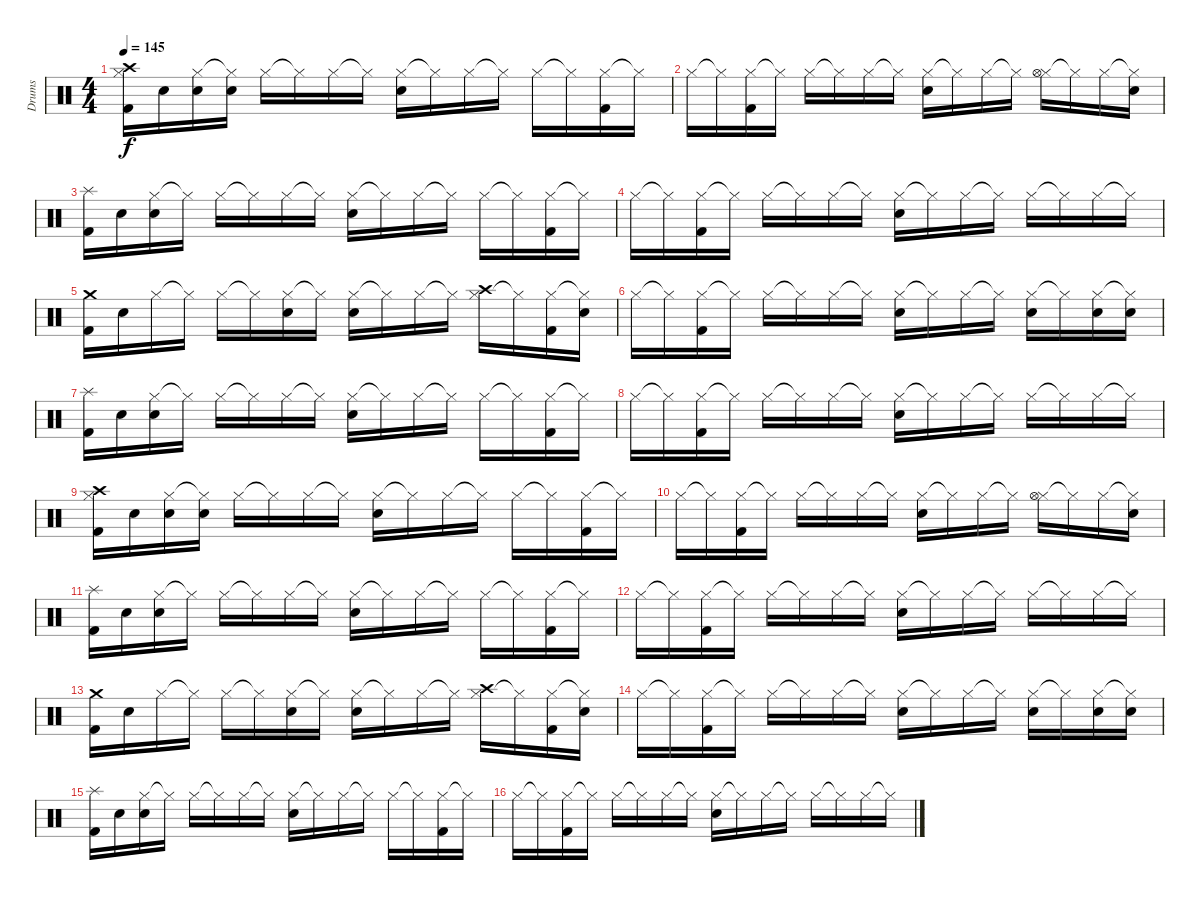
\track ("Drums" "Drums") {instrument percussion}
\staff {score}
\articulation defaults
\ts (4 4)
\tempo 145
\clef neutral
\ks c
("Hi-Hat (closed)" "Crash high (hit)" "Kick (hit) 2").16{dy f} "Snare (hit)".16 ("Hi-Hat (closed)" "Snare (hit)").16 ("Hi-Hat (closed)"{t} "Snare (hit)").16 "Hi-Hat (closed)".16 "Hi-Hat (closed)"{t}.16 "Hi-Hat (closed)".16 "Hi-Hat (closed)"{t}.16 ("Hi-Hat (closed)" "Snare (hit) 2").16 "Hi-Hat (closed)"{t}.16 "Hi-Hat (closed)".16 "Hi-Hat (closed)"{t}.16 "Hi-Hat (closed)".16 "Hi-Hat (closed)"{t}.16 ("Hi-Hat (closed)" "Kick (hit) 2").16 "Hi-Hat (closed)"{t}.16 |
"Hi-Hat (closed)".16 "Hi-Hat (closed)"{t}.16 ("Hi-Hat (closed)" "Kick (hit) 2").16 "Hi-Hat (closed)"{t}.16 "Hi-Hat (closed)".16 "Hi-Hat (closed)"{t}.16 "Hi-Hat (closed)".16 "Hi-Hat (closed)"{t}.16 ("Hi-Hat (closed)" "Snare (hit) 2").16 "Hi-Hat (closed)"{t}.16 "Hi-Hat (closed)".16 "Hi-Hat (closed)"{t}.16 ("Hi-Hat (closed)" "Hi-Hat (open)").16 "Hi-Hat (closed)"{t}.16 "Hi-Hat (closed)".16 ("Hi-Hat (closed)"{t} "Snare (hit)").16 |
("Splash (hit)" "Kick (hit) 2").16 "Snare (hit)".16 ("Hi-Hat (closed)" "Snare (hit)").16 "Hi-Hat (closed)"{t}.16 "Hi-Hat (closed)".16 "Hi-Hat (closed)"{t}.16 "Hi-Hat (closed)".16 "Hi-Hat (closed)"{t}.16 ("Hi-Hat (closed)" "Snare (hit) 2").16 "Hi-Hat (closed)"{t}.16 "Hi-Hat (closed)".16 "Hi-Hat (closed)"{t}.16 "Hi-Hat (closed)".16 "Hi-Hat (closed)"{t}.16 ("Hi-Hat (closed)" "Kick (hit) 2").16 "Hi-Hat (closed)"{t}.16 |
"Hi-Hat (closed)".16 "Hi-Hat (closed)"{t}.16 ("Hi-Hat (closed)" "Kick (hit) 2").16 "Hi-Hat (closed)"{t}.16 "Hi-Hat (closed)".16 "Hi-Hat (closed)"{t}.16 "Hi-Hat (closed)".16 "Hi-Hat (closed)"{t}.16 ("Hi-Hat (closed)" "Snare (hit) 2").16 "Hi-Hat (closed)"{t}.16 "Hi-Hat (closed)".16 "Hi-Hat (closed)"{t}.16 "Hi-Hat (closed)".16 "Hi-Hat (closed)"{t}.16 "Hi-Hat (closed)".16 "Hi-Hat (closed)"{t}.16 |
("Crash medium (hit)" "Kick (hit) 2").16 "Snare (hit)".16 "Hi-Hat (closed)".16 "Hi-Hat (closed)"{t}.16 "Hi-Hat (closed)".16 "Hi-Hat (closed)"{t}.16 ("Hi-Hat (closed)" "Snare (hit)").16 "Hi-Hat (closed)"{t}.16 ("Hi-Hat (closed)" "Snare (hit) 2").16 "Hi-Hat (closed)"{t}.16 "Hi-Hat (closed)".16 "Hi-Hat (closed)"{t}.16 ("Hi-Hat (closed)" "Crash high (hit)").16 "Hi-Hat (closed)"{t}.16 ("Hi-Hat (closed)" "Kick (hit) 2").16 ("Hi-Hat (closed)"{t} "Snare (hit)").16 |
"Hi-Hat (closed)".16 "Hi-Hat (closed)"{t}.16 ("Hi-Hat (closed)" "Kick (hit) 2").16 "Hi-Hat (closed)"{t}.16 "Hi-Hat (closed)".16 "Hi-Hat (closed)"{t}.16 "Hi-Hat (closed)".16 "Hi-Hat (closed)"{t}.16 ("Hi-Hat (closed)" "Snare (hit) 2").16 "Hi-Hat (closed)"{t}.16 "Hi-Hat (closed)".16 "Hi-Hat (closed)"{t}.16 ("Hi-Hat (closed)" "Snare (hit) 2").16 "Hi-Hat (closed)"{t}.16 ("Hi-Hat (closed)" "Snare (hit) 2").16 ("Hi-Hat (closed)"{t} "Snare (hit)").16 |
("Splash (hit)" "Kick (hit) 2").16 "Snare (hit)".16 ("Hi-Hat (closed)" "Snare (hit)").16 "Hi-Hat (closed)"{t}.16 "Hi-Hat (closed)".16 "Hi-Hat (closed)"{t}.16 "Hi-Hat (closed)".16 "Hi-Hat (closed)"{t}.16 ("Hi-Hat (closed)" "Snare (hit) 2").16 "Hi-Hat (closed)"{t}.16 "Hi-Hat (closed)".16 "Hi-Hat (closed)"{t}.16 "Hi-Hat (closed)".16 "Hi-Hat (closed)"{t}.16 ("Hi-Hat (closed)" "Kick (hit) 2").16 "Hi-Hat (closed)"{t}.16 |
"Hi-Hat (closed)".16 "Hi-Hat (closed)"{t}.16 ("Hi-Hat (closed)" "Kick (hit) 2").16 "Hi-Hat (closed)"{t}.16 "Hi-Hat (closed)".16 "Hi-Hat (closed)"{t}.16 "Hi-Hat (closed)".16 "Hi-Hat (closed)"{t}.16 ("Hi-Hat (closed)" "Snare (hit) 2").16 "Hi-Hat (closed)"{t}.16 "Hi-Hat (closed)".16 "Hi-Hat (closed)"{t}.16 "Hi-Hat (closed)".16 "Hi-Hat (closed)"{t}.16 "Hi-Hat (closed)".16 "Hi-Hat (closed)"{t}.16 |
("Hi-Hat (closed)" "Crash high (hit)" "Kick (hit) 2").16 "Snare (hit)".16 ("Hi-Hat (closed)" "Snare (hit)").16 ("Hi-Hat (closed)"{t} "Snare (hit)").16 "Hi-Hat (closed)".16 "Hi-Hat (closed)"{t}.16 "Hi-Hat (closed)".16 "Hi-Hat (closed)"{t}.16 ("Hi-Hat (closed)" "Snare (hit) 2").16 "Hi-Hat (closed)"{t}.16 "Hi-Hat (closed)".16 "Hi-Hat (closed)"{t}.16 "Hi-Hat (closed)".16 "Hi-Hat (closed)"{t}.16 ("Hi-Hat (closed)" "Kick (hit) 2").16 "Hi-Hat (closed)"{t}.16 |
"Hi-Hat (closed)".16 "Hi-Hat (closed)"{t}.16 ("Hi-Hat (closed)" "Kick (hit) 2").16 "Hi-Hat (closed)"{t}.16 "Hi-Hat (closed)".16 "Hi-Hat (closed)"{t}.16 "Hi-Hat (closed)".16 "Hi-Hat (closed)"{t}.16 ("Hi-Hat (closed)" "Snare (hit) 2").16 "Hi-Hat (closed)"{t}.16 "Hi-Hat (closed)".16 "Hi-Hat (closed)"{t}.16 ("Hi-Hat (closed)" "Hi-Hat (open)").16 "Hi-Hat (closed)"{t}.16 "Hi-Hat (closed)".16 ("Hi-Hat (closed)"{t} "Snare (hit)").16 |
("Splash (hit)" "Kick (hit) 2").16 "Snare (hit)".16 ("Hi-Hat (closed)" "Snare (hit)").16 "Hi-Hat (closed)"{t}.16 "Hi-Hat (closed)".16 "Hi-Hat (closed)"{t}.16 "Hi-Hat (closed)".16 "Hi-Hat (closed)"{t}.16 ("Hi-Hat (closed)" "Snare (hit) 2").16 "Hi-Hat (closed)"{t}.16 "Hi-Hat (closed)".16 "Hi-Hat (closed)"{t}.16 "Hi-Hat (closed)".16 "Hi-Hat (closed)"{t}.16 ("Hi-Hat (closed)" "Kick (hit) 2").16 "Hi-Hat (closed)"{t}.16 |
"Hi-Hat (closed)".16 "Hi-Hat (closed)"{t}.16 ("Hi-Hat (closed)" "Kick (hit) 2").16 "Hi-Hat (closed)"{t}.16 "Hi-Hat (closed)".16 "Hi-Hat (closed)"{t}.16 "Hi-Hat (closed)".16 "Hi-Hat (closed)"{t}.16 ("Hi-Hat (closed)" "Snare (hit) 2").16 "Hi-Hat (closed)"{t}.16 "Hi-Hat (closed)".16 "Hi-Hat (closed)"{t}.16 "Hi-Hat (closed)".16 "Hi-Hat (closed)"{t}.16 "Hi-Hat (closed)".16 "Hi-Hat (closed)"{t}.16 |
("Crash medium (hit)" "Kick (hit) 2").16 "Snare (hit)".16 "Hi-Hat (closed)".16 "Hi-Hat (closed)"{t}.16 "Hi-Hat (closed)".16 "Hi-Hat (closed)"{t}.16 ("Hi-Hat (closed)" "Snare (hit)").16 "Hi-Hat (closed)"{t}.16 ("Hi-Hat (closed)" "Snare (hit) 2").16 "Hi-Hat (closed)"{t}.16 "Hi-Hat (closed)".16 "Hi-Hat (closed)"{t}.16 ("Hi-Hat (closed)" "Crash high (hit)").16 "Hi-Hat (closed)"{t}.16 ("Hi-Hat (closed)" "Kick (hit) 2").16 ("Hi-Hat (closed)"{t} "Snare (hit)").16 |
"Hi-Hat (closed)".16 "Hi-Hat (closed)"{t}.16 ("Hi-Hat (closed)" "Kick (hit) 2").16 "Hi-Hat (closed)"{t}.16 "Hi-Hat (closed)".16 "Hi-Hat (closed)"{t}.16 "Hi-Hat (closed)".16 "Hi-Hat (closed)"{t}.16 ("Hi-Hat (closed)" "Snare (hit) 2").16 "Hi-Hat (closed)"{t}.16 "Hi-Hat (closed)".16 "Hi-Hat (closed)"{t}.16 ("Hi-Hat (closed)" "Snare (hit) 2").16 "Hi-Hat (closed)"{t}.16 ("Hi-Hat (closed)" "Snare (hit) 2").16 ("Hi-Hat (closed)"{t} "Snare (hit)").16 |
("Splash (hit)" "Kick (hit) 2").16 "Snare (hit)".16 ("Hi-Hat (closed)" "Snare (hit)").16 "Hi-Hat (closed)"{t}.16 "Hi-Hat (closed)".16 "Hi-Hat (closed)"{t}.16 "Hi-Hat (closed)".16 "Hi-Hat (closed)"{t}.16 ("Hi-Hat (closed)" "Snare (hit) 2").16 "Hi-Hat (closed)"{t}.16 "Hi-Hat (closed)".16 "Hi-Hat (closed)"{t}.16 "Hi-Hat (closed)".16 "Hi-Hat (closed)"{t}.16 ("Hi-Hat (closed)" "Kick (hit) 2").16 "Hi-Hat (closed)"{t}.16 |
"Hi-Hat (closed)".16 "Hi-Hat (closed)"{t}.16 ("Hi-Hat (closed)" "Kick (hit) 2").16 "Hi-Hat (closed)"{t}.16 "Hi-Hat (closed)".16 "Hi-Hat (closed)"{t}.16 "Hi-Hat (closed)".16 "Hi-Hat (closed)"{t}.16 ("Hi-Hat (closed)" "Snare (hit) 2").16 "Hi-Hat (closed)"{t}.16 "Hi-Hat (closed)".16 "Hi-Hat (closed)"{t}.16 "Hi-Hat (closed)".16 "Hi-Hat (closed)"{t}.16 "Hi-Hat (closed)".16 "Hi-Hat (closed)"{t}.16
